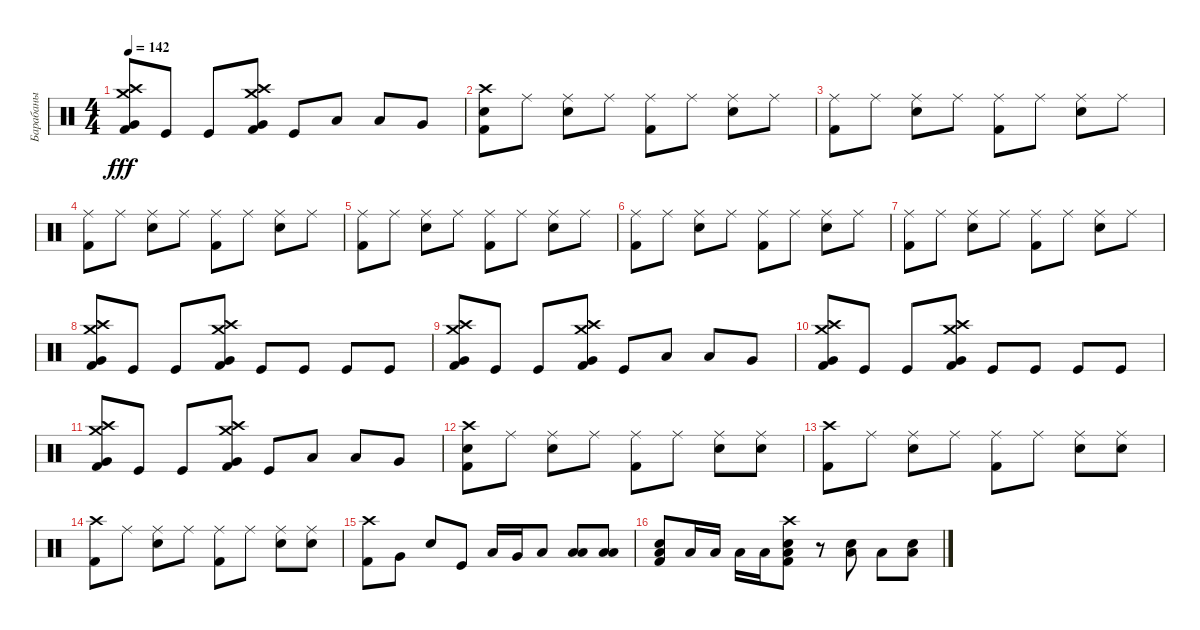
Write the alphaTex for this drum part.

\track ("Барабаны" "Барабаны") {instrument percussion}
\staff {score}
\articulation defaults
\ts (4 4)
\tempo 142
\clef neutral
\ks c
("Very Low Tom (hit)" "Crash medium (hit)" "Crash high (hit)" "Kick (hit) 2").8{dy fff} "Kick (hit)".8 "Kick (hit)".8 ("Crash medium (hit)" "Crash high (hit)" "Very Low Tom (hit)" "Kick (hit) 2").8 "Kick (hit)".8 "Low Floor Tom (hit)".8 "Low Floor Tom (hit)".8 "Very Low Tom (hit)".8 |
("Snare (hit) 2" "Crash high (hit)" "Kick (hit) 2").8 "Ride (middle)".8 ("Ride (middle)" "Snare (hit) 2").8 "Ride (middle)".8 ("Ride (middle)" "Kick (hit) 2").8 "Ride (middle)".8 ("Ride (middle)" "Snare (hit) 2").8 "Ride (middle)".8 |
("Ride (middle)" "Kick (hit) 2").8 "Ride (middle)".8 ("Ride (middle)" "Snare (hit) 2").8 "Ride (middle)".8 ("Ride (middle)" "Kick (hit) 2").8 "Ride (middle)".8 ("Ride (middle)" "Snare (hit) 2").8 "Ride (middle)".8 |
("Ride (middle)" "Kick (hit) 2").8 "Ride (middle)".8 ("Ride (middle)" "Snare (hit) 2").8 "Ride (middle)".8 ("Ride (middle)" "Kick (hit) 2").8 "Ride (middle)".8 ("Ride (middle)" "Snare (hit) 2").8 "Ride (middle)".8 |
("Ride (middle)" "Kick (hit) 2").8 "Ride (middle)".8 ("Ride (middle)" "Snare (hit) 2").8 "Ride (middle)".8 ("Ride (middle)" "Kick (hit) 2").8 "Ride (middle)".8 ("Ride (middle)" "Snare (hit) 2").8 "Ride (middle)".8 |
("Ride (middle)" "Kick (hit) 2").8 "Ride (middle)".8 ("Ride (middle)" "Snare (hit) 2").8 "Ride (middle)".8 ("Ride (middle)" "Kick (hit) 2").8 "Ride (middle)".8 ("Ride (middle)" "Snare (hit) 2").8 "Ride (middle)".8 |
("Ride (middle)" "Kick (hit) 2").8 "Ride (middle)".8 ("Ride (middle)" "Snare (hit) 2").8 "Ride (middle)".8 ("Ride (middle)" "Kick (hit) 2").8 "Ride (middle)".8 ("Ride (middle)" "Snare (hit) 2").8 "Ride (middle)".8 |
("Very Low Tom (hit)" "Crash medium (hit)" "Crash high (hit)" "Kick (hit) 2").8 "Kick (hit)".8 "Kick (hit)".8 ("Very Low Tom (hit)" "Crash medium (hit)" "Crash high (hit)" "Kick (hit) 2").8 "Kick (hit)".8 "Kick (hit)".8 "Kick (hit)".8 "Kick (hit)".8 |
("Very Low Tom (hit)" "Crash medium (hit)" "Crash high (hit)" "Kick (hit) 2").8 "Kick (hit)".8 "Kick (hit)".8 ("Crash medium (hit)" "Crash high (hit)" "Very Low Tom (hit)" "Kick (hit) 2").8 "Kick (hit)".8 "Low Floor Tom (hit)".8 "Low Floor Tom (hit)".8 "Very Low Tom (hit)".8 |
("Very Low Tom (hit)" "Crash medium (hit)" "Crash high (hit)" "Kick (hit) 2").8 "Kick (hit)".8 "Kick (hit)".8 ("Very Low Tom (hit)" "Crash medium (hit)" "Crash high (hit)" "Kick (hit) 2").8 "Kick (hit)".8 "Kick (hit)".8 "Kick (hit)".8 "Kick (hit)".8 |
("Very Low Tom (hit)" "Crash medium (hit)" "Crash high (hit)" "Kick (hit) 2").8 "Kick (hit)".8 "Kick (hit)".8 ("Crash medium (hit)" "Crash high (hit)" "Very Low Tom (hit)" "Kick (hit) 2").8 "Kick (hit)".8 "Low Floor Tom (hit)".8 "Low Floor Tom (hit)".8 "Very Low Tom (hit)".8 |
("Crash high (hit)" "Snare (hit) 2" "Kick (hit) 2").8 "Ride (middle)".8 ("Snare (hit) 2" "Ride (middle)").8 "Ride (middle)".8 ("Ride (middle)" "Kick (hit) 2").8 "Ride (middle)".8 ("Ride (middle)" "Snare (hit) 2").8 ("Ride (middle)" "Snare (hit) 2").8 |
("Crash high (hit)" "Kick (hit) 2").8 "Ride (middle)".8 ("Snare (hit) 2" "Ride (middle)").8 "Ride (middle)".8 ("Kick (hit) 2" "Ride (middle)").8 "Ride (middle)".8 ("Snare (hit) 2" "Ride (middle)").8 ("Snare (hit) 2" "Ride (middle)").8 |
("Crash high (hit)" "Kick (hit) 2").8 "Ride (middle)".8 ("Snare (hit) 2" "Ride (middle)").8 "Ride (middle)".8 ("Kick (hit) 2" "Ride (middle)").8 "Ride (middle)".8 ("Snare (hit) 2" "Ride (middle)").8 ("Snare (hit) 2" "Ride (middle)").8 |
("Crash high (hit)" "Kick (hit) 2").8 "Very Low Tom (hit)".8 "Electric Snare (hit)".8 "Kick (hit)".8 "Low Tom (hit)".16 "Very Low Tom (hit)".16 "Low Tom (hit)".8 ("Low Floor Tom (hit)" "Low Tom (hit)").8 ("Low Floor Tom (hit)" "Low Tom (hit)").8 |
("Kick (hit) 2" "Low Tom (hit)" "Electric Snare (hit)").8 "Low Tom (hit)".16 "Low Tom (hit)".16 "Low Tom (hit)".16 "Low Tom (hit)".16 ("Kick (hit) 2" "Crash high (hit)" "Low Tom (hit)" "Electric Snare (hit)").8 r.8 ("Low Tom (hit)" "Electric Snare (hit)").8 "Low Floor Tom (hit)".8 ("Low Tom (hit)" "Electric Snare (hit)").8
